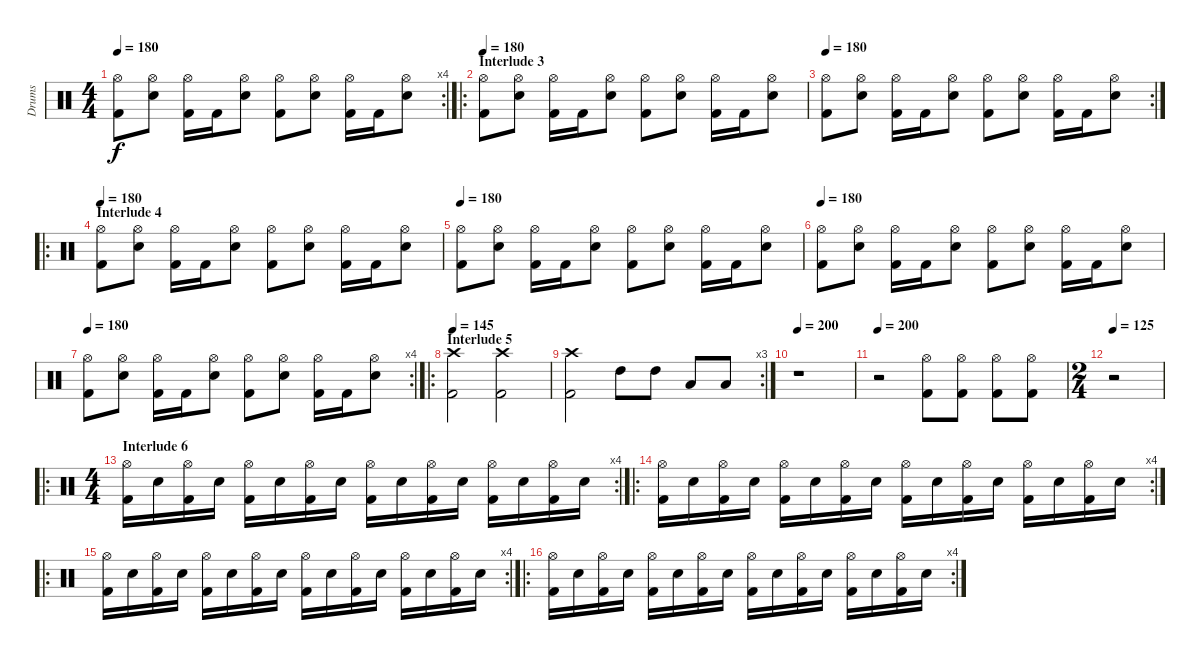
\track ("Drums" "Drums") {instrument percussion}
\staff {score}
\articulation defaults
\rc 4
\ts (4 4)
\tempo 180
\clef neutral
\ks c
("Hi-Hat (open)" "Kick (hit) 2").8{dy f} ("Hi-Hat (open)" "Electric Snare (hit)").8 ("Hi-Hat (open)" "Kick (hit) 2").16 "Kick (hit) 2".16 ("Hi-Hat (open)" "Electric Snare (hit)").8 ("Hi-Hat (open)" "Kick (hit) 2").8 ("Hi-Hat (open)" "Electric Snare (hit)").8 ("Hi-Hat (open)" "Kick (hit) 2").16 "Kick (hit) 2".16 ("Hi-Hat (open)" "Electric Snare (hit)").8 |
\ro
\section ("" "Interlude 3")
\tempo 180
("Hi-Hat (open)" "Kick (hit) 2").8 ("Hi-Hat (open)" "Electric Snare (hit)").8 ("Hi-Hat (open)" "Kick (hit) 2").16 "Kick (hit) 2".16 ("Hi-Hat (open)" "Electric Snare (hit)").8 ("Hi-Hat (open)" "Kick (hit) 2").8 ("Hi-Hat (open)" "Electric Snare (hit)").8 ("Hi-Hat (open)" "Kick (hit) 2").16 "Kick (hit) 2".16 ("Hi-Hat (open)" "Electric Snare (hit)").8 |
\rc 2
\tempo 180
("Hi-Hat (open)" "Kick (hit) 2").8 ("Hi-Hat (open)" "Electric Snare (hit)").8 ("Hi-Hat (open)" "Kick (hit) 2").16 "Kick (hit) 2".16 ("Hi-Hat (open)" "Electric Snare (hit)").8 ("Hi-Hat (open)" "Kick (hit) 2").8 ("Hi-Hat (open)" "Electric Snare (hit)").8 ("Hi-Hat (open)" "Kick (hit) 2").16 "Kick (hit) 2".16 ("Hi-Hat (open)" "Electric Snare (hit)").8 |
\ro
\section ("" "Interlude 4")
\tempo 180
("Hi-Hat (open)" "Kick (hit) 2").8 ("Hi-Hat (open)" "Electric Snare (hit)").8 ("Hi-Hat (open)" "Kick (hit) 2").16 "Kick (hit) 2".16 ("Hi-Hat (open)" "Electric Snare (hit)").8 ("Hi-Hat (open)" "Kick (hit) 2").8 ("Hi-Hat (open)" "Electric Snare (hit)").8 ("Hi-Hat (open)" "Kick (hit) 2").16 "Kick (hit) 2".16 ("Hi-Hat (open)" "Electric Snare (hit)").8 |
\tempo 180
("Hi-Hat (open)" "Kick (hit) 2").8 ("Hi-Hat (open)" "Electric Snare (hit)").8 ("Hi-Hat (open)" "Kick (hit) 2").16 "Kick (hit) 2".16 ("Hi-Hat (open)" "Electric Snare (hit)").8 ("Hi-Hat (open)" "Kick (hit) 2").8 ("Hi-Hat (open)" "Electric Snare (hit)").8 ("Hi-Hat (open)" "Kick (hit) 2").16 "Kick (hit) 2".16 ("Hi-Hat (open)" "Electric Snare (hit)").8 |
\tempo 180
("Hi-Hat (open)" "Kick (hit) 2").8 ("Hi-Hat (open)" "Electric Snare (hit)").8 ("Hi-Hat (open)" "Kick (hit) 2").16 "Kick (hit) 2".16 ("Hi-Hat (open)" "Electric Snare (hit)").8 ("Hi-Hat (open)" "Kick (hit) 2").8 ("Hi-Hat (open)" "Electric Snare (hit)").8 ("Hi-Hat (open)" "Kick (hit) 2").16 "Kick (hit) 2".16 ("Hi-Hat (open)" "Electric Snare (hit)").8 |
\rc 4
\tempo 180
("Hi-Hat (open)" "Kick (hit) 2").8 ("Hi-Hat (open)" "Electric Snare (hit)").8 ("Hi-Hat (open)" "Kick (hit) 2").16 "Kick (hit) 2".16 ("Hi-Hat (open)" "Electric Snare (hit)").8 ("Hi-Hat (open)" "Kick (hit) 2").8 ("Hi-Hat (open)" "Electric Snare (hit)").8 ("Hi-Hat (open)" "Kick (hit) 2").16 "Kick (hit) 2".16 ("Hi-Hat (open)" "Electric Snare (hit)").8 |
\ro
\section ("" "Interlude 5")
\tempo 145
("Crash high (hit)" "Kick (hit) 2").2 ("Crash high (hit)" "Kick (hit) 2").2 |
\rc 3
("Crash high (hit)" "Kick (hit) 2").2 "High Tom (hit)".8 "High Tom (hit)".8 "Low Tom (hit)".8 "Low Tom (hit)".8 |
\tempo 200
r.1 |
\tempo 200
r.2 ("Hi-Hat (open)" "Kick (hit) 2").8 ("Hi-Hat (open)" "Kick (hit) 2").8 ("Hi-Hat (open)" "Kick (hit) 2").8 ("Hi-Hat (open)" "Kick (hit) 2").8 |
\ts (2 4)
\tempo 125
r.2 |
\ro
\rc 4
\ts (4 4)
\section ("" "Interlude 6")
("Hi-Hat (open)" "Kick (hit) 2").16 "Electric Snare (hit)".16 ("Hi-Hat (open)" "Kick (hit) 2").16 "Electric Snare (hit)".16 ("Hi-Hat (open)" "Kick (hit) 2").16 "Electric Snare (hit)".16 ("Hi-Hat (open)" "Kick (hit) 2").16 "Electric Snare (hit)".16 ("Hi-Hat (open)" "Kick (hit) 2").16 "Electric Snare (hit)".16 ("Hi-Hat (open)" "Kick (hit) 2").16 "Electric Snare (hit)".16 ("Hi-Hat (open)" "Kick (hit) 2").16 "Electric Snare (hit)".16 ("Hi-Hat (open)" "Kick (hit) 2").16 "Electric Snare (hit)".16 |
\ro
\rc 4
("Hi-Hat (open)" "Kick (hit) 2").16 "Electric Snare (hit)".16 ("Hi-Hat (open)" "Kick (hit) 2").16 "Electric Snare (hit)".16 ("Hi-Hat (open)" "Kick (hit) 2").16 "Electric Snare (hit)".16 ("Hi-Hat (open)" "Kick (hit) 2").16 "Electric Snare (hit)".16 ("Hi-Hat (open)" "Kick (hit) 2").16 "Electric Snare (hit)".16 ("Hi-Hat (open)" "Kick (hit) 2").16 "Electric Snare (hit)".16 ("Hi-Hat (open)" "Kick (hit) 2").16 "Electric Snare (hit)".16 ("Hi-Hat (open)" "Kick (hit) 2").16 "Electric Snare (hit)".16 |
\ro
\rc 4
("Hi-Hat (open)" "Kick (hit) 2").16 "Electric Snare (hit)".16 ("Hi-Hat (open)" "Kick (hit) 2").16 "Electric Snare (hit)".16 ("Hi-Hat (open)" "Kick (hit) 2").16 "Electric Snare (hit)".16 ("Hi-Hat (open)" "Kick (hit) 2").16 "Electric Snare (hit)".16 ("Hi-Hat (open)" "Kick (hit) 2").16 "Electric Snare (hit)".16 ("Hi-Hat (open)" "Kick (hit) 2").16 "Electric Snare (hit)".16 ("Hi-Hat (open)" "Kick (hit) 2").16 "Electric Snare (hit)".16 ("Hi-Hat (open)" "Kick (hit) 2").16 "Electric Snare (hit)".16 |
\ro
\rc 4
("Hi-Hat (open)" "Kick (hit) 2").16 "Electric Snare (hit)".16 ("Hi-Hat (open)" "Kick (hit) 2").16 "Electric Snare (hit)".16 ("Hi-Hat (open)" "Kick (hit) 2").16 "Electric Snare (hit)".16 ("Hi-Hat (open)" "Kick (hit) 2").16 "Electric Snare (hit)".16 ("Hi-Hat (open)" "Kick (hit) 2").16 "Electric Snare (hit)".16 ("Hi-Hat (open)" "Kick (hit) 2").16 "Electric Snare (hit)".16 ("Hi-Hat (open)" "Kick (hit) 2").16 "Electric Snare (hit)".16 ("Hi-Hat (open)" "Kick (hit) 2").16 "Electric Snare (hit)".16
